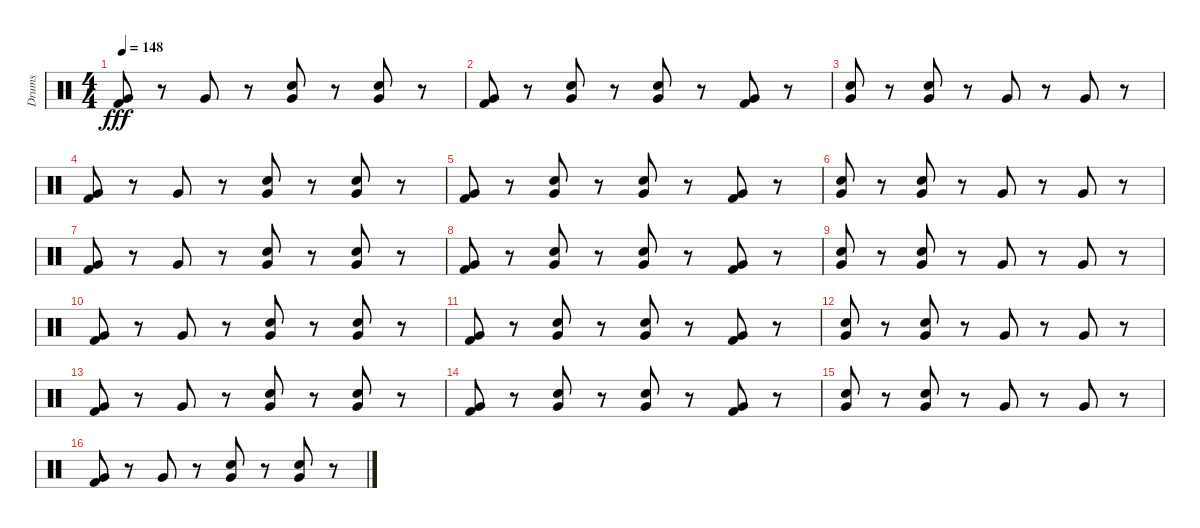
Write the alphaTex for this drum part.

\track ("Drums" "Drums") {instrument percussion}
\staff {score}
\articulation defaults
\ts (4 4)
\tempo 148
\clef neutral
\ks c
("Very Low Tom (hit)" "Kick (hit) 2").8{dy fff} r.8 "Very Low Tom (hit)".8 r.8 ("Very Low Tom (hit)" "Snare (hit) 2").8 r.8 ("Very Low Tom (hit)" "Snare (hit) 2").8 r.8 |
("Very Low Tom (hit)" "Kick (hit) 2").8 r.8 ("Very Low Tom (hit)" "Snare (hit) 2").8 r.8 ("Very Low Tom (hit)" "Snare (hit) 2").8 r.8 ("Very Low Tom (hit)" "Kick (hit) 2").8 r.8 |
("Very Low Tom (hit)" "Snare (hit) 2").8 r.8 ("Very Low Tom (hit)" "Snare (hit) 2").8 r.8 "Very Low Tom (hit)".8 r.8 "Very Low Tom (hit)".8 r.8 |
("Very Low Tom (hit)" "Kick (hit) 2").8 r.8 "Very Low Tom (hit)".8 r.8 ("Very Low Tom (hit)" "Snare (hit) 2").8 r.8 ("Very Low Tom (hit)" "Snare (hit) 2").8 r.8 |
("Very Low Tom (hit)" "Kick (hit) 2").8 r.8 ("Very Low Tom (hit)" "Snare (hit) 2").8 r.8 ("Very Low Tom (hit)" "Snare (hit) 2").8 r.8 ("Very Low Tom (hit)" "Kick (hit) 2").8 r.8 |
("Very Low Tom (hit)" "Snare (hit) 2").8 r.8 ("Very Low Tom (hit)" "Snare (hit) 2").8 r.8 "Very Low Tom (hit)".8 r.8 "Very Low Tom (hit)".8 r.8 |
("Very Low Tom (hit)" "Kick (hit) 2").8 r.8 "Very Low Tom (hit)".8 r.8 ("Very Low Tom (hit)" "Snare (hit) 2").8 r.8 ("Very Low Tom (hit)" "Snare (hit) 2").8 r.8 |
("Very Low Tom (hit)" "Kick (hit) 2").8 r.8 ("Very Low Tom (hit)" "Snare (hit) 2").8 r.8 ("Very Low Tom (hit)" "Snare (hit) 2").8 r.8 ("Very Low Tom (hit)" "Kick (hit) 2").8 r.8 |
("Very Low Tom (hit)" "Snare (hit) 2").8 r.8 ("Very Low Tom (hit)" "Snare (hit) 2").8 r.8 "Very Low Tom (hit)".8 r.8 "Very Low Tom (hit)".8 r.8 |
("Very Low Tom (hit)" "Kick (hit) 2").8 r.8 "Very Low Tom (hit)".8 r.8 ("Very Low Tom (hit)" "Snare (hit) 2").8 r.8 ("Very Low Tom (hit)" "Snare (hit) 2").8 r.8 |
("Very Low Tom (hit)" "Kick (hit) 2").8 r.8 ("Very Low Tom (hit)" "Snare (hit) 2").8 r.8 ("Very Low Tom (hit)" "Snare (hit) 2").8 r.8 ("Very Low Tom (hit)" "Kick (hit) 2").8 r.8 |
("Very Low Tom (hit)" "Snare (hit) 2").8 r.8 ("Very Low Tom (hit)" "Snare (hit) 2").8 r.8 "Very Low Tom (hit)".8 r.8 "Very Low Tom (hit)".8 r.8 |
("Very Low Tom (hit)" "Kick (hit) 2").8 r.8 "Very Low Tom (hit)".8 r.8 ("Very Low Tom (hit)" "Snare (hit) 2").8 r.8 ("Very Low Tom (hit)" "Snare (hit) 2").8 r.8 |
("Very Low Tom (hit)" "Kick (hit) 2").8 r.8 ("Very Low Tom (hit)" "Snare (hit) 2").8 r.8 ("Very Low Tom (hit)" "Snare (hit) 2").8 r.8 ("Very Low Tom (hit)" "Kick (hit) 2").8 r.8 |
("Very Low Tom (hit)" "Snare (hit) 2").8 r.8 ("Very Low Tom (hit)" "Snare (hit) 2").8 r.8 "Very Low Tom (hit)".8 r.8 "Very Low Tom (hit)".8 r.8 |
("Very Low Tom (hit)" "Kick (hit) 2").8 r.8 "Very Low Tom (hit)".8 r.8 ("Very Low Tom (hit)" "Snare (hit) 2").8 r.8 ("Very Low Tom (hit)" "Snare (hit) 2").8 r.8
